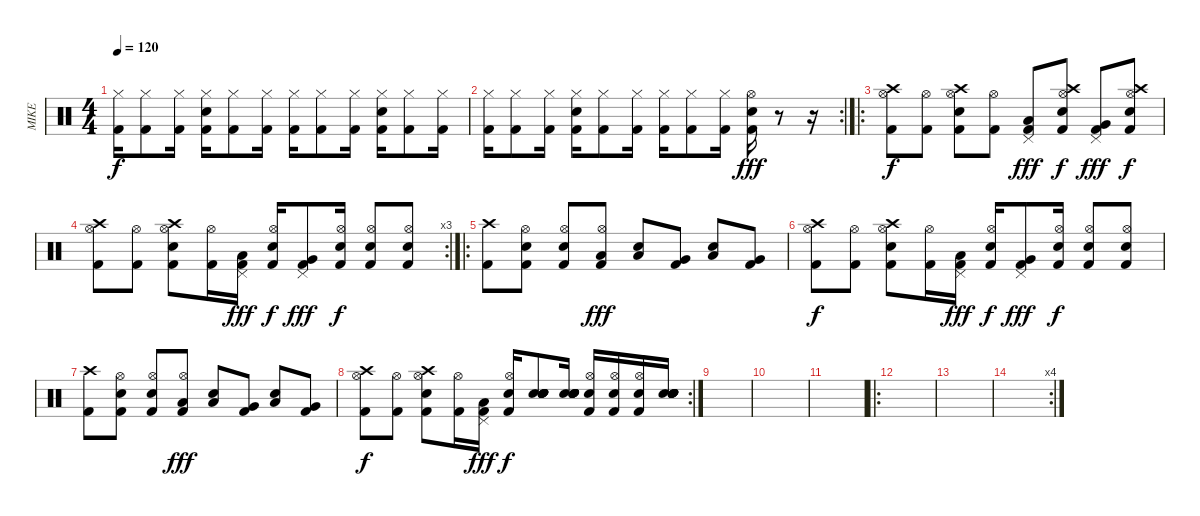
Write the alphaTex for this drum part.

\track ("MIKE" "MIKE") {instrument percussion}
\staff {score}
\articulation defaults
\ts (4 4)
\tempo 120
\clef neutral
\ks c
("Hi-Hat (closed)" "Kick (hit) 2").16{dy f} ("Hi-Hat (closed)" "Kick (hit) 2").8 ("Hi-Hat (closed)" "Kick (hit) 2").16 ("Hi-Hat (closed)" "Snare (hit) 2" "Kick (hit) 2").16 ("Hi-Hat (closed)" "Kick (hit) 2").8 ("Hi-Hat (closed)" "Kick (hit) 2").16 ("Hi-Hat (closed)" "Kick (hit) 2").16 ("Hi-Hat (closed)" "Kick (hit) 2").8 ("Hi-Hat (closed)" "Kick (hit) 2").16 ("Hi-Hat (closed)" "Snare (hit) 2" "Kick (hit) 2").16 ("Hi-Hat (closed)" "Kick (hit) 2").8 ("Hi-Hat (closed)" "Kick (hit) 2").16 |
\rc 2
("Hi-Hat (closed)" "Kick (hit) 2").16 ("Hi-Hat (closed)" "Kick (hit) 2").8 ("Hi-Hat (closed)" "Kick (hit) 2").16 ("Hi-Hat (closed)" "Snare (hit) 2" "Kick (hit) 2").16 ("Hi-Hat (closed)" "Kick (hit) 2").8 ("Hi-Hat (closed)" "Kick (hit) 2").16 ("Hi-Hat (closed)" "Kick (hit) 2").16 ("Hi-Hat (closed)" "Kick (hit) 2").8 ("Hi-Hat (closed)" "Kick (hit) 2").16 ("Hi-Hat (open)" "Snare (hit) 2" "Kick (hit) 2").16{dy fff} r.8 r.16 |
\ro
("Crash high (hit)" "Hi-Hat (open)" "Kick (hit) 2").8{dy f} ("Hi-Hat (open)" "Kick (hit) 2").8 ("Crash high (hit)" "Hi-Hat (open)" "Electric Snare (hit)" "Kick (hit) 2").8 ("Hi-Hat (open)" "Kick (hit) 2").8 ("Low Tom (hit)" "Pedal Hi-Hat (hit)" "Kick (hit) 2").8{dy fff} ("Crash high (hit)" "Hi-Hat (open)" "Electric Snare (hit)" "Kick (hit) 2").8{dy f} ("Very Low Tom (hit)" "Pedal Hi-Hat (hit)" "Kick (hit) 2").8{dy fff} ("Crash high (hit)" "Hi-Hat (open)" "Electric Snare (hit)" "Kick (hit) 2").8{dy f} |
\rc 3
("Crash high (hit)" "Hi-Hat (open)" "Kick (hit) 2").8 ("Hi-Hat (open)" "Kick (hit) 2").8 ("Crash high (hit)" "Hi-Hat (open)" "Electric Snare (hit)" "Kick (hit) 2").8 ("Hi-Hat (open)" "Kick (hit) 2").16 ("Low Tom (hit)" "Pedal Hi-Hat (hit)" "Kick (hit) 2").16{dy fff} ("Hi-Hat (open)" "Electric Snare (hit)" "Kick (hit) 2").16{dy f} ("Very Low Tom (hit)" "Pedal Hi-Hat (hit)" "Kick (hit) 2").8{dy fff} ("Hi-Hat (open)" "Electric Snare (hit)" "Kick (hit) 2").16{dy f} ("Hi-Hat (open)" "Electric Snare (hit)" "Kick (hit) 2").8 ("Hi-Hat (open)" "Electric Snare (hit)" "Kick (hit) 2").8 |
\ro
("Crash high (hit)" "Kick (hit) 2").8 ("Hi-Hat (open)" "Electric Snare (hit)" "Kick (hit) 2").8 ("Hi-Hat (open)" "Electric Snare (hit)" "Kick (hit) 2").8 ("Hi-Hat (open)" "Low Tom (hit)" "Kick (hit) 2").8{dy fff} ("Low Tom (hit)" "Electric Snare (hit)").8 ("Very Low Tom (hit)" "Kick (hit) 2").8 ("Low Tom (hit)" "Electric Snare (hit)").8 ("Very Low Tom (hit)" "Kick (hit) 2").8 |
("Crash high (hit)" "Hi-Hat (open)" "Kick (hit) 2").8{dy f} ("Hi-Hat (open)" "Kick (hit) 2").8 ("Crash high (hit)" "Hi-Hat (open)" "Electric Snare (hit)" "Kick (hit) 2").8 ("Hi-Hat (open)" "Kick (hit) 2").16 ("Low Tom (hit)" "Pedal Hi-Hat (hit)" "Kick (hit) 2").16{dy fff} ("Hi-Hat (open)" "Electric Snare (hit)" "Kick (hit) 2").16{dy f} ("Very Low Tom (hit)" "Pedal Hi-Hat (hit)" "Kick (hit) 2").8{dy fff} ("Hi-Hat (open)" "Electric Snare (hit)" "Kick (hit) 2").16{dy f} ("Hi-Hat (open)" "Electric Snare (hit)" "Kick (hit) 2").8 ("Hi-Hat (open)" "Electric Snare (hit)" "Kick (hit) 2").8 |
("Crash high (hit)" "Kick (hit) 2").8 ("Hi-Hat (open)" "Electric Snare (hit)" "Kick (hit) 2").8 ("Hi-Hat (open)" "Electric Snare (hit)" "Kick (hit) 2").8 ("Hi-Hat (open)" "Low Tom (hit)" "Kick (hit) 2").8{dy fff} ("Low Tom (hit)" "Electric Snare (hit)").8 ("Very Low Tom (hit)" "Kick (hit) 2").8 ("Low Tom (hit)" "Electric Snare (hit)").8 ("Very Low Tom (hit)" "Kick (hit) 2").8 |
\rc 2
("Crash high (hit)" "Hi-Hat (open)" "Kick (hit) 2").8{dy f} ("Hi-Hat (open)" "Kick (hit) 2").8 ("Crash high (hit)" "Hi-Hat (open)" "Electric Snare (hit)" "Kick (hit) 2").8 ("Hi-Hat (open)" "Kick (hit) 2").16 ("Low Tom (hit)" "Pedal Hi-Hat (hit)" "Kick (hit) 2").16{dy fff} ("Hi-Hat (open)" "Electric Snare (hit)" "Kick (hit) 2").16{dy f} ("Electric Snare (hit)" "Electric Snare (hit)" "Electric Snare (hit)" "Electric Snare (hit)" "Electric Snare (hit)" "Electric Snare (hit)").8 ("Electric Snare (hit)" "Electric Snare (hit)" "Electric Snare (hit)" "Electric Snare (hit)" "Electric Snare (hit)" "Electric Snare (hit)").16 ("Hi-Hat (open)" "Electric Snare (hit)" "Kick (hit) 2").16 ("Hi-Hat (open)" "Electric Snare (hit)" "Kick (hit) 2").16 ("Hi-Hat (open)" "Electric Snare (hit)" "Kick (hit) 2").16 ("Electric Snare (hit)" "Electric Snare (hit)" "Electric Snare (hit)" "Electric Snare (hit)" "Electric Snare (hit)" "Electric Snare (hit)").16 |
|
|
|
\ro
|
|
\rc 4
